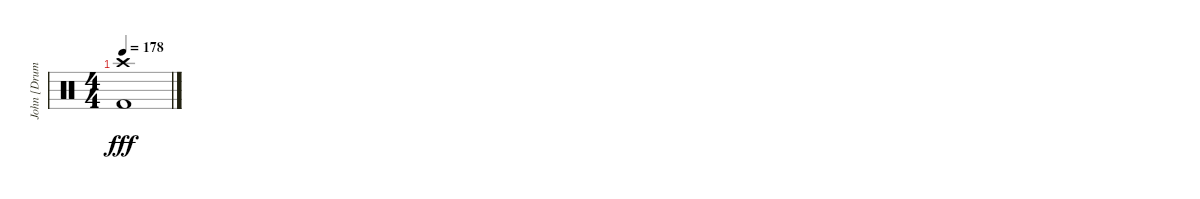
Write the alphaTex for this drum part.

\track ("John [Drums]" "John [Drum") {instrument percussion}
\staff {score}
\articulation defaults
\ts (4 4)
\tempo 178
\clef neutral
\ks c
("Crash high (hit)" "Kick (hit) 2").1{dy fff}
